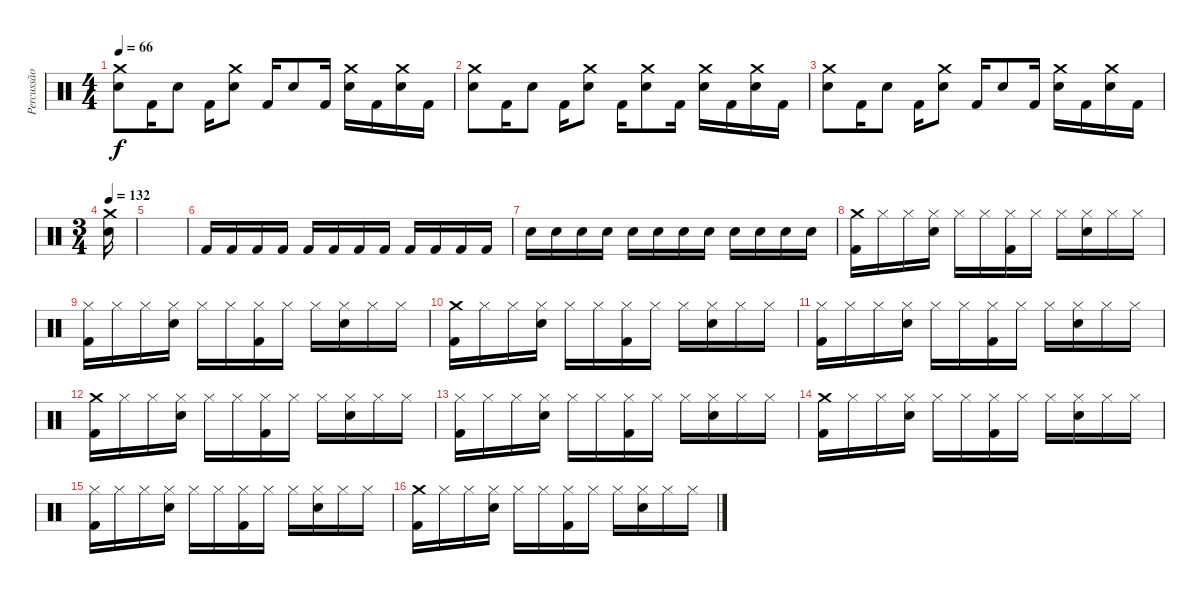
\track ("Percussão" "Percussão") {instrument percussion}
\staff {score}
\articulation defaults
\ts (4 4)
\tempo 66
\clef neutral
\ks c
("Crash medium (hit)" "Snare (hit) 2").8{dy f} "Kick (hit) 2".16 "Snare (hit) 2".8 "Kick (hit) 2".16 ("Crash medium (hit)" "Snare (hit) 2").8 "Kick (hit) 2".16 "Snare (hit) 2".8 "Kick (hit) 2".16 ("Crash medium (hit)" "Snare (hit) 2").16 "Kick (hit) 2".16 ("Crash medium (hit)" "Snare (hit) 2").16 "Kick (hit) 2".16 |
("Crash medium (hit)" "Snare (hit) 2").8 "Kick (hit) 2".16 "Snare (hit) 2".8 "Kick (hit) 2".16 ("Crash medium (hit)" "Snare (hit) 2").8 "Kick (hit) 2".16 ("Crash medium (hit)" "Snare (hit) 2").8 "Kick (hit) 2".16 ("Crash medium (hit)" "Snare (hit) 2").16 "Kick (hit) 2".16 ("Crash medium (hit)" "Snare (hit) 2").16 "Kick (hit) 2".16 |
("Crash medium (hit)" "Snare (hit) 2").8 "Kick (hit) 2".16 "Snare (hit) 2".8 "Kick (hit) 2".16 ("Crash medium (hit)" "Snare (hit) 2").8 "Kick (hit) 2".16 "Snare (hit) 2".8 "Kick (hit) 2".16 ("Crash medium (hit)" "Snare (hit) 2").16 "Kick (hit) 2".16 ("Crash medium (hit)" "Snare (hit) 2").16 "Kick (hit) 2".16 |
\ts (3 4)
\tempo 132
("Crash medium (hit)" "Snare (hit) 2").16 |
|
"Kick (hit) 2".16 "Kick (hit) 2".16 "Kick (hit) 2".16 "Kick (hit) 2".16 "Kick (hit) 2".16 "Kick (hit) 2".16 "Kick (hit) 2".16 "Kick (hit) 2".16 "Kick (hit) 2".16 "Kick (hit) 2".16 "Kick (hit) 2".16 "Kick (hit) 2".16 |
"Snare (hit) 2".16 "Snare (hit) 2".16 "Snare (hit) 2".16 "Snare (hit) 2".16 "Snare (hit) 2".16 "Snare (hit) 2".16 "Snare (hit) 2".16 "Snare (hit) 2".16 "Snare (hit) 2".16 "Snare (hit) 2".16 "Snare (hit) 2".16 "Snare (hit) 2".16 |
("Crash medium (hit)" "Kick (hit) 2").16 "Hi-Hat (closed)".16 "Hi-Hat (closed)".16 ("Hi-Hat (closed)" "Snare (hit) 2").16 "Hi-Hat (closed)".16 "Hi-Hat (closed)".16 ("Hi-Hat (closed)" "Kick (hit) 2").16 "Hi-Hat (closed)".16 "Hi-Hat (closed)".16 ("Hi-Hat (closed)" "Snare (hit) 2").16 "Hi-Hat (closed)".16 "Hi-Hat (closed)".16 |
("Hi-Hat (closed)" "Kick (hit) 2").16 "Hi-Hat (closed)".16 "Hi-Hat (closed)".16 ("Hi-Hat (closed)" "Snare (hit) 2").16 "Hi-Hat (closed)".16 "Hi-Hat (closed)".16 ("Hi-Hat (closed)" "Kick (hit) 2").16 "Hi-Hat (closed)".16 "Hi-Hat (closed)".16 ("Hi-Hat (closed)" "Snare (hit) 2").16 "Hi-Hat (closed)".16 "Hi-Hat (closed)".16 |
("Crash medium (hit)" "Kick (hit) 2").16 "Hi-Hat (closed)".16 "Hi-Hat (closed)".16 ("Hi-Hat (closed)" "Snare (hit) 2").16 "Hi-Hat (closed)".16 "Hi-Hat (closed)".16 ("Hi-Hat (closed)" "Kick (hit) 2").16 "Hi-Hat (closed)".16 "Hi-Hat (closed)".16 ("Hi-Hat (closed)" "Snare (hit) 2").16 "Hi-Hat (closed)".16 "Hi-Hat (closed)".16 |
("Hi-Hat (closed)" "Kick (hit) 2").16 "Hi-Hat (closed)".16 "Hi-Hat (closed)".16 ("Hi-Hat (closed)" "Snare (hit) 2").16 "Hi-Hat (closed)".16 "Hi-Hat (closed)".16 ("Hi-Hat (closed)" "Kick (hit) 2").16 "Hi-Hat (closed)".16 "Hi-Hat (closed)".16 ("Hi-Hat (closed)" "Snare (hit) 2").16 "Hi-Hat (closed)".16 "Hi-Hat (closed)".16 |
("Crash medium (hit)" "Kick (hit) 2").16 "Hi-Hat (closed)".16 "Hi-Hat (closed)".16 ("Hi-Hat (closed)" "Snare (hit) 2").16 "Hi-Hat (closed)".16 "Hi-Hat (closed)".16 ("Hi-Hat (closed)" "Kick (hit) 2").16 "Hi-Hat (closed)".16 "Hi-Hat (closed)".16 ("Hi-Hat (closed)" "Snare (hit) 2").16 "Hi-Hat (closed)".16 "Hi-Hat (closed)".16 |
("Hi-Hat (closed)" "Kick (hit) 2").16 "Hi-Hat (closed)".16 "Hi-Hat (closed)".16 ("Hi-Hat (closed)" "Snare (hit) 2").16 "Hi-Hat (closed)".16 "Hi-Hat (closed)".16 ("Hi-Hat (closed)" "Kick (hit) 2").16 "Hi-Hat (closed)".16 "Hi-Hat (closed)".16 ("Hi-Hat (closed)" "Snare (hit) 2").16 "Hi-Hat (closed)".16 "Hi-Hat (closed)".16 |
("Crash medium (hit)" "Kick (hit) 2").16 "Hi-Hat (closed)".16 "Hi-Hat (closed)".16 ("Hi-Hat (closed)" "Snare (hit) 2").16 "Hi-Hat (closed)".16 "Hi-Hat (closed)".16 ("Hi-Hat (closed)" "Kick (hit) 2").16 "Hi-Hat (closed)".16 "Hi-Hat (closed)".16 ("Hi-Hat (closed)" "Snare (hit) 2").16 "Hi-Hat (closed)".16 "Hi-Hat (closed)".16 |
("Hi-Hat (closed)" "Kick (hit) 2").16 "Hi-Hat (closed)".16 "Hi-Hat (closed)".16 ("Hi-Hat (closed)" "Snare (hit) 2").16 "Hi-Hat (closed)".16 "Hi-Hat (closed)".16 ("Hi-Hat (closed)" "Kick (hit) 2").16 "Hi-Hat (closed)".16 "Hi-Hat (closed)".16 ("Hi-Hat (closed)" "Snare (hit) 2").16 "Hi-Hat (closed)".16 "Hi-Hat (closed)".16 |
("Crash medium (hit)" "Kick (hit) 2").16 "Hi-Hat (closed)".16 "Hi-Hat (closed)".16 ("Hi-Hat (closed)" "Snare (hit) 2").16 "Hi-Hat (closed)".16 "Hi-Hat (closed)".16 ("Hi-Hat (closed)" "Kick (hit) 2").16 "Hi-Hat (closed)".16 "Hi-Hat (closed)".16 ("Hi-Hat (closed)" "Snare (hit) 2").16 "Hi-Hat (closed)".16 "Hi-Hat (closed)".16
